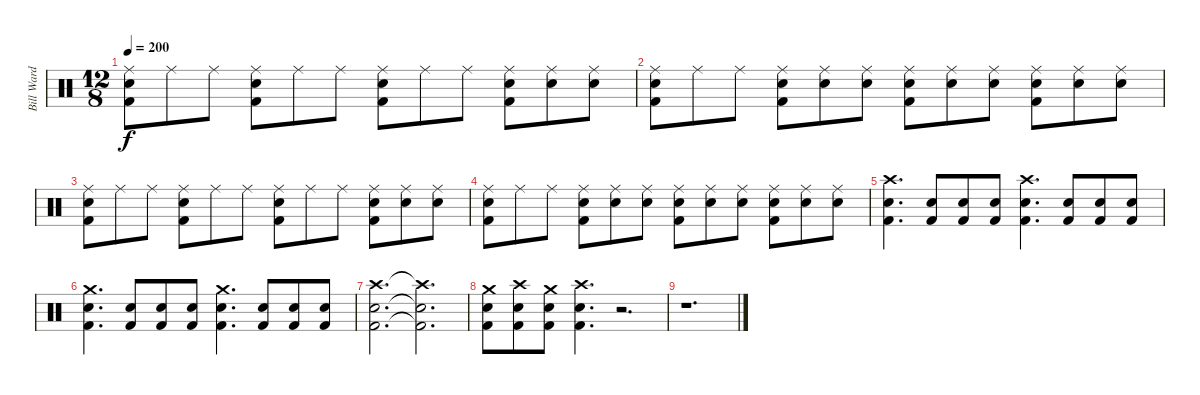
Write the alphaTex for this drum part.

\track ("Bill Ward - Drums" "Bill Ward ") {instrument percussion}
\staff {score}
\articulation defaults
\ts (12 8)
\tempo 200
\clef neutral
\ks c
("Ride (middle)" "Snare (hit) 2" "Kick (hit) 2").8{dy f} "Ride (middle)".8 "Ride (middle)".8 ("Ride (middle)" "Snare (hit) 2" "Kick (hit) 2").8 "Ride (middle)".8 "Ride (middle)".8 ("Ride (middle)" "Snare (hit) 2" "Kick (hit) 2").8 "Ride (middle)".8 "Ride (middle)".8 ("Ride (middle)" "Snare (hit) 2" "Kick (hit) 2").8 ("Ride (middle)" "Snare (hit) 2").8 ("Ride (middle)" "Snare (hit) 2").8 |
("Ride (middle)" "Snare (hit) 2" "Kick (hit) 2").8 "Ride (middle)".8 "Ride (middle)".8 ("Ride (middle)" "Snare (hit) 2" "Kick (hit) 2").8 ("Ride (middle)" "Snare (hit) 2").8 ("Ride (middle)" "Snare (hit) 2").8 ("Ride (middle)" "Snare (hit) 2" "Kick (hit) 2").8 ("Ride (middle)" "Snare (hit) 2").8 ("Ride (middle)" "Snare (hit) 2").8 ("Ride (middle)" "Snare (hit) 2" "Kick (hit) 2").8 ("Ride (middle)" "Snare (hit) 2").8 ("Ride (middle)" "Snare (hit) 2").8 |
("Ride (middle)" "Snare (hit) 2" "Kick (hit) 2").8 "Ride (middle)".8 "Ride (middle)".8 ("Ride (middle)" "Snare (hit) 2" "Kick (hit) 2").8 "Ride (middle)".8 "Ride (middle)".8 ("Ride (middle)" "Snare (hit) 2" "Kick (hit) 2").8 "Ride (middle)".8 "Ride (middle)".8 ("Ride (middle)" "Snare (hit) 2" "Kick (hit) 2").8 ("Ride (middle)" "Snare (hit) 2").8 ("Ride (middle)" "Snare (hit) 2").8 |
("Ride (middle)" "Snare (hit) 2" "Kick (hit) 2").8 "Ride (middle)".8 "Ride (middle)".8 ("Ride (middle)" "Snare (hit) 2" "Kick (hit) 2").8 ("Ride (middle)" "Snare (hit) 2").8 ("Ride (middle)" "Snare (hit) 2").8 ("Ride (middle)" "Snare (hit) 2" "Kick (hit) 2").8 ("Ride (middle)" "Snare (hit) 2").8 ("Ride (middle)" "Snare (hit) 2").8 ("Ride (middle)" "Snare (hit) 2" "Kick (hit) 2").8 ("Ride (middle)" "Snare (hit) 2").8 ("Ride (middle)" "Snare (hit) 2").8 |
("Crash high (hit)" "Snare (hit) 2" "Kick (hit) 2").4{d} ("Snare (hit) 2" "Kick (hit) 2").8 ("Snare (hit) 2" "Kick (hit) 2").8 ("Snare (hit) 2" "Kick (hit) 2").8 ("Crash high (hit)" "Snare (hit) 2" "Kick (hit) 2").4{d} ("Snare (hit) 2" "Kick (hit) 2").8 ("Snare (hit) 2" "Kick (hit) 2").8 ("Snare (hit) 2" "Kick (hit) 2").8 |
("Crash medium (hit)" "Snare (hit) 2" "Kick (hit) 2").4{d} ("Snare (hit) 2" "Kick (hit) 2").8 ("Snare (hit) 2" "Kick (hit) 2").8 ("Snare (hit) 2" "Kick (hit) 2").8 ("Crash medium (hit)" "Snare (hit) 2" "Kick (hit) 2").4{d} ("Snare (hit) 2" "Kick (hit) 2").8 ("Snare (hit) 2" "Kick (hit) 2").8 ("Snare (hit) 2" "Kick (hit) 2").8 |
("Crash high (hit)" "Snare (hit) 2" "Kick (hit) 2").2{d} ("Crash high (hit)"{t} "Snare (hit) 2"{t} "Kick (hit) 2"{t}).2{d} |
("Crash medium (hit)" "Snare (hit) 2" "Kick (hit) 2").8 ("Crash high (hit)" "Snare (hit) 2" "Kick (hit) 2").8 ("Crash medium (hit)" "Snare (hit) 2" "Kick (hit) 2").8 ("Crash high (hit)" "Snare (hit) 2" "Kick (hit) 2").4{d} r.2{d} |
r.1{d}
